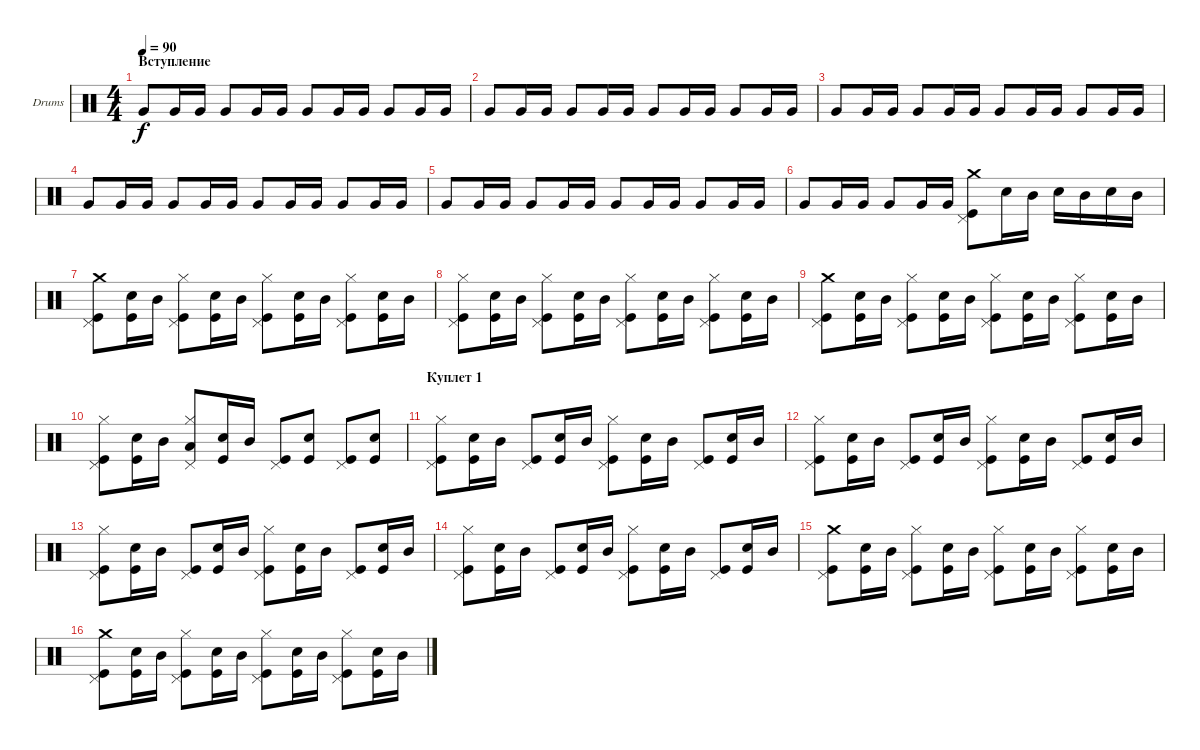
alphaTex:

\defaultSystemsLayout 4
\bracketExtendMode groupsimilarinstruments
\firstSystemTrackNameOrientation horizontal
\otherSystemsTrackNameOrientation horizontal
\track ("Drums" "Drums") {instrument percussion}
\staff {score}
\articulation defaults
\ts (4 4)
\section ("" "Вступление")
\tempo 90
\clef neutral
\ks c "Very Low Tom (hit)".8{dy f} "Very Low Tom (hit)".16 "Very Low Tom (hit)".16 "Very Low Tom (hit)".8 "Very Low Tom (hit)".16 "Very Low Tom (hit)".16 "Very Low Tom (hit)".8 "Very Low Tom (hit)".16 "Very Low Tom (hit)".16 "Very Low Tom (hit)".8 "Very Low Tom (hit)".16 "Very Low Tom (hit)".16
|
"Very Low Tom (hit)".8 "Very Low Tom (hit)".16 "Very Low Tom (hit)".16 "Very Low Tom (hit)".8 "Very Low Tom (hit)".16 "Very Low Tom (hit)".16 "Very Low Tom (hit)".8 "Very Low Tom (hit)".16 "Very Low Tom (hit)".16 "Very Low Tom (hit)".8 "Very Low Tom (hit)".16 "Very Low Tom (hit)".16 |
\scale
0.474178 "Very Low Tom (hit)".8 "Very Low Tom (hit)".16 "Very Low Tom (hit)".16 "Very Low Tom (hit)".8 "Very Low Tom (hit)".16 "Very Low Tom (hit)".16 "Very Low Tom (hit)".8 "Very Low Tom (hit)".16 "Very Low Tom (hit)".16 "Very Low Tom (hit)".8 "Very Low Tom (hit)".16 "Very Low Tom (hit)".16 |
\scale
0.262911 "Very Low Tom (hit)".8 "Very Low Tom (hit)".16 "Very Low Tom (hit)".16 "Very Low Tom (hit)".8 "Very Low Tom (hit)".16 "Very Low Tom (hit)".16 "Very Low Tom (hit)".8 "Very Low Tom (hit)".16 "Very Low Tom (hit)".16 "Very Low Tom (hit)".8 "Very Low Tom (hit)".16 "Very Low Tom (hit)".16 |
\scale
0.262911 "Very Low Tom (hit)".8 "Very Low Tom (hit)".16 "Very Low Tom (hit)".16 "Very Low Tom (hit)".8 "Very Low Tom (hit)".16 "Very Low Tom (hit)".16 "Very Low Tom (hit)".8 "Very Low Tom (hit)".16 "Very Low Tom (hit)".16 "Very Low Tom (hit)".8 "Very Low Tom (hit)".16 "Very Low Tom (hit)".16 |
\scale
0.356322 "Very Low Tom (hit)".8 "Very Low Tom (hit)".16 "Very Low Tom (hit)".16 "Very Low Tom (hit)".8 "Very Low Tom (hit)".16 "Very Low Tom (hit)".16 ("Kick (hit)" "Pedal Hi-Hat (hit)" "Crash medium (hit)").8 "Snare (hit) 2".16 "Mid Tom (hit)".16 "Snare (hit) 2".16 "Mid Tom (hit)".16 "Snare (hit) 2".16 "Mid Tom (hit)".16 |
("Kick (hit)" "Pedal Hi-Hat (hit)" "Crash medium (hit)").8 ("Snare (hit) 2" "Kick (hit)").16 "Mid Tom (hit)".16 ("Pedal Hi-Hat (hit)" "Hi-Hat (closed)" "Kick (hit)").8 ("Snare (hit) 2" "Kick (hit)").16 "Mid Tom (hit)".16 ("Kick (hit)" "Pedal Hi-Hat (hit)" "Hi-Hat (closed)").8 ("Snare (hit) 2" "Kick (hit)").16 "Mid Tom (hit)".16 ("Kick (hit)" "Pedal Hi-Hat (hit)" "Hi-Hat (closed)").8 ("Snare (hit) 2" "Kick (hit)").16 "Mid Tom (hit)".16 |
("Kick (hit)" "Pedal Hi-Hat (hit)" "Hi-Hat (closed)").8 ("Snare (hit) 2" "Kick (hit)").16 "Mid Tom (hit)".16 ("Pedal Hi-Hat (hit)" "Hi-Hat (closed)" "Kick (hit)").8 ("Snare (hit) 2" "Kick (hit)").16 "Mid Tom (hit)".16 ("Kick (hit)" "Pedal Hi-Hat (hit)" "Hi-Hat (closed)").8 ("Snare (hit) 2" "Kick (hit)").16 "Mid Tom (hit)".16 ("Kick (hit)" "Pedal Hi-Hat (hit)" "Hi-Hat (closed)").8 ("Snare (hit) 2" "Kick (hit)").16 "Mid Tom (hit)".16 |
("Kick (hit)" "Pedal Hi-Hat (hit)" "Crash medium (hit)").8 ("Snare (hit) 2" "Kick (hit)").16 "Mid Tom (hit)".16 ("Pedal Hi-Hat (hit)" "Hi-Hat (closed)" "Kick (hit)").8 ("Snare (hit) 2" "Kick (hit)").16 "Mid Tom (hit)".16 ("Kick (hit)" "Pedal Hi-Hat (hit)" "Hi-Hat (closed)").8 ("Snare (hit) 2" "Kick (hit)").16 "Mid Tom (hit)".16 ("Kick (hit)" "Pedal Hi-Hat (hit)" "Hi-Hat (closed)").8 ("Snare (hit) 2" "Kick (hit)").16 "Mid Tom (hit)".16 |
\scale
0.321839 ("Kick (hit)" "Pedal Hi-Hat (hit)" "Hi-Hat (closed)").8 ("Snare (hit) 2" "Kick (hit)").16 "Mid Tom (hit)".16 ("Pedal Hi-Hat (hit)" "Hi-Hat (closed)" "Low Tom (hit)").8 ("Snare (hit) 2" "Kick (hit)").16 "Mid Tom (hit)".16 ("Kick (hit)" "Pedal Hi-Hat (hit)").8 ("Snare (hit) 2" "Kick (hit)").8 ("Kick (hit)" "Pedal Hi-Hat (hit)").8 ("Snare (hit) 2" "Kick (hit)").8 |
\section ("" "Куплет 1")
\scale
0.321839 ("Kick (hit)" "Pedal Hi-Hat (hit)" "Hi-Hat (closed)").8 ("Snare (hit) 2" "Kick (hit)").16 "Mid Tom (hit)".16 ("Pedal Hi-Hat (hit)" "Kick (hit)").8 ("Snare (hit) 2" "Kick (hit)").16 "Mid Tom (hit)".16 ("Kick (hit)" "Pedal Hi-Hat (hit)" "Hi-Hat (closed)").8 ("Snare (hit) 2" "Kick (hit)").16 "Mid Tom (hit)".16 ("Kick (hit)" "Pedal Hi-Hat (hit)").8 ("Snare (hit) 2" "Kick (hit)").16 "Mid Tom (hit)".16 |
\scale
0.333333 ("Kick (hit)" "Pedal Hi-Hat (hit)" "Hi-Hat (closed)").8 ("Snare (hit) 2" "Kick (hit)").16 "Mid Tom (hit)".16 ("Pedal Hi-Hat (hit)" "Kick (hit)").8 ("Snare (hit) 2" "Kick (hit)").16 "Mid Tom (hit)".16 ("Kick (hit)" "Pedal Hi-Hat (hit)" "Hi-Hat (closed)").8 ("Snare (hit) 2" "Kick (hit)").16 "Mid Tom (hit)".16 ("Kick (hit)" "Pedal Hi-Hat (hit)").8 ("Snare (hit) 2" "Kick (hit)").16 "Mid Tom (hit)".16 |
\scale
0.333333 ("Kick (hit)" "Pedal Hi-Hat (hit)" "Hi-Hat (closed)").8 ("Snare (hit) 2" "Kick (hit)").16 "Mid Tom (hit)".16 ("Pedal Hi-Hat (hit)" "Kick (hit)").8 ("Snare (hit) 2" "Kick (hit)").16 "Mid Tom (hit)".16 ("Kick (hit)" "Pedal Hi-Hat (hit)" "Hi-Hat (closed)").8 ("Snare (hit) 2" "Kick (hit)").16 "Mid Tom (hit)".16 ("Kick (hit)" "Pedal Hi-Hat (hit)").8 ("Snare (hit) 2" "Kick (hit)").16 "Mid Tom (hit)".16 |
\scale
0.333333 ("Kick (hit)" "Pedal Hi-Hat (hit)" "Hi-Hat (closed)").8 ("Snare (hit) 2" "Kick (hit)").16 "Mid Tom (hit)".16 ("Pedal Hi-Hat (hit)" "Kick (hit)").8 ("Snare (hit) 2" "Kick (hit)").16 "Mid Tom (hit)".16 ("Kick (hit)" "Pedal Hi-Hat (hit)" "Hi-Hat (closed)").8 ("Snare (hit) 2" "Kick (hit)").16 "Mid Tom (hit)".16 ("Kick (hit)" "Pedal Hi-Hat (hit)").8 ("Snare (hit) 2" "Kick (hit)").16 "Mid Tom (hit)".16 |
("Kick (hit)" "Pedal Hi-Hat (hit)" "Crash medium (hit)").8 ("Snare (hit) 2" "Kick (hit)").16 "Mid Tom (hit)".16 ("Pedal Hi-Hat (hit)" "Hi-Hat (closed)" "Kick (hit)").8 ("Snare (hit) 2" "Kick (hit)").16 "Mid Tom (hit)".16 ("Kick (hit)" "Pedal Hi-Hat (hit)" "Hi-Hat (closed)").8 ("Snare (hit) 2" "Kick (hit)").16 "Mid Tom (hit)".16 ("Kick (hit)" "Pedal Hi-Hat (hit)" "Hi-Hat (closed)").8 ("Snare (hit) 2" "Kick (hit)").16 "Mid Tom (hit)".16 |
("Kick (hit)" "Pedal Hi-Hat (hit)" "Crash medium (hit)").8 ("Snare (hit) 2" "Kick (hit)").16 "Mid Tom (hit)".16 ("Pedal Hi-Hat (hit)" "Hi-Hat (closed)" "Kick (hit)").8 ("Snare (hit) 2" "Kick (hit)").16 "Mid Tom (hit)".16 ("Kick (hit)" "Pedal Hi-Hat (hit)" "Hi-Hat (closed)").8 ("Snare (hit) 2" "Kick (hit)").16 "Mid Tom (hit)".16 ("Kick (hit)" "Pedal Hi-Hat (hit)" "Hi-Hat (closed)").8 ("Snare (hit) 2" "Kick (hit)").16 "Mid Tom (hit)".16
